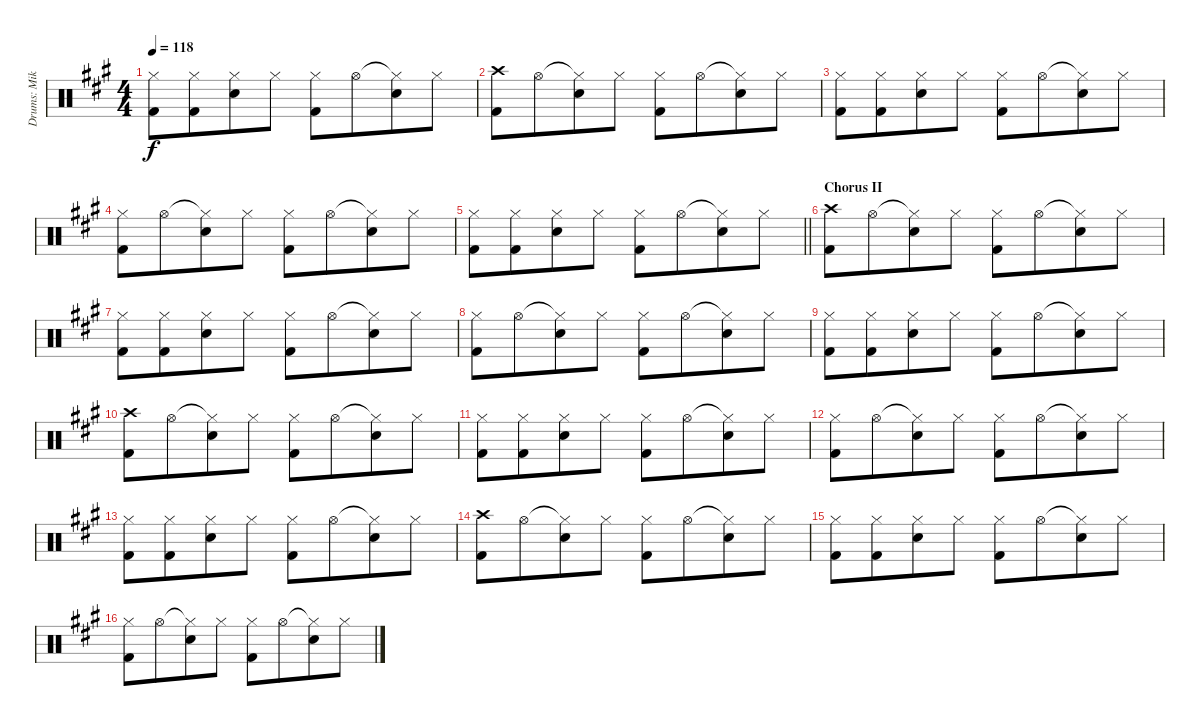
\track ("Drums: Mike" "Drums: Mik") {instrument percussion}
\staff {score}
\articulation defaults
\ts (4 4)
\tempo 118
\clef neutral
\ks a
("Hi-Hat (closed)" "Kick (hit) 2").8{dy f} ("Hi-Hat (closed)" "Kick (hit) 2").8{beam merge} ("Hi-Hat (closed)" "Electric Snare (hit)").8{beam merge} "Hi-Hat (closed)".8 ("Hi-Hat (closed)" "Kick (hit) 2").8 "Hi-Hat (open)".8{beam merge} ("Hi-Hat (closed)"{t} "Electric Snare (hit)").8{beam merge} "Hi-Hat (closed)".8 |
("Crash high (hit)" "Kick (hit) 2").8 "Hi-Hat (open)".8{beam merge} ("Hi-Hat (closed)"{t} "Electric Snare (hit)").8{beam merge} "Hi-Hat (closed)".8 ("Hi-Hat (closed)" "Kick (hit) 2").8 "Hi-Hat (open)".8{beam merge} ("Hi-Hat (closed)"{t} "Electric Snare (hit)").8{beam merge} "Hi-Hat (closed)".8 |
("Hi-Hat (closed)" "Kick (hit) 2").8 ("Hi-Hat (closed)" "Kick (hit) 2").8{beam merge} ("Hi-Hat (closed)" "Electric Snare (hit)").8{beam merge} "Hi-Hat (closed)".8 ("Hi-Hat (closed)" "Kick (hit) 2").8 "Hi-Hat (open)".8{beam merge} ("Hi-Hat (closed)"{t} "Electric Snare (hit)").8{beam merge} "Hi-Hat (closed)".8 |
("Hi-Hat (closed)" "Kick (hit) 2").8 "Hi-Hat (open)".8{beam merge} ("Hi-Hat (closed)"{t} "Electric Snare (hit)").8{beam merge} "Hi-Hat (closed)".8 ("Hi-Hat (closed)" "Kick (hit) 2").8 "Hi-Hat (open)".8{beam merge} ("Hi-Hat (closed)"{t} "Electric Snare (hit)").8{beam merge} "Hi-Hat (closed)".8 |
\barLineRight lightlight
("Hi-Hat (closed)" "Kick (hit) 2").8 ("Hi-Hat (closed)" "Kick (hit) 2").8{beam merge} ("Hi-Hat (closed)" "Electric Snare (hit)").8{beam merge} "Hi-Hat (closed)".8 ("Hi-Hat (closed)" "Kick (hit) 2").8 "Hi-Hat (open)".8{beam merge} ("Hi-Hat (closed)"{t} "Electric Snare (hit)").8{beam merge} "Hi-Hat (closed)".8 |
\section ("" "Chorus II")
("Crash high (hit)" "Kick (hit) 2").8 "Hi-Hat (open)".8{beam merge} ("Hi-Hat (closed)"{t} "Electric Snare (hit)").8{beam merge} "Hi-Hat (closed)".8 ("Hi-Hat (closed)" "Kick (hit) 2").8 "Hi-Hat (open)".8{beam merge} ("Hi-Hat (closed)"{t} "Electric Snare (hit)").8{beam merge} "Hi-Hat (closed)".8 |
("Hi-Hat (closed)" "Kick (hit) 2").8 ("Hi-Hat (closed)" "Kick (hit) 2").8{beam merge} ("Hi-Hat (closed)" "Electric Snare (hit)").8{beam merge} "Hi-Hat (closed)".8 ("Hi-Hat (closed)" "Kick (hit) 2").8 "Hi-Hat (open)".8{beam merge} ("Hi-Hat (closed)"{t} "Electric Snare (hit)").8{beam merge} "Hi-Hat (closed)".8 |
("Hi-Hat (closed)" "Kick (hit) 2").8 "Hi-Hat (open)".8{beam merge} ("Hi-Hat (closed)"{t} "Electric Snare (hit)").8{beam merge} "Hi-Hat (closed)".8 ("Hi-Hat (closed)" "Kick (hit) 2").8 "Hi-Hat (open)".8{beam merge} ("Hi-Hat (closed)"{t} "Electric Snare (hit)").8{beam merge} "Hi-Hat (closed)".8 |
("Hi-Hat (closed)" "Kick (hit) 2").8 ("Hi-Hat (closed)" "Kick (hit) 2").8{beam merge} ("Hi-Hat (closed)" "Electric Snare (hit)").8{beam merge} "Hi-Hat (closed)".8 ("Hi-Hat (closed)" "Kick (hit) 2").8 "Hi-Hat (open)".8{beam merge} ("Hi-Hat (closed)"{t} "Electric Snare (hit)").8{beam merge} "Hi-Hat (closed)".8 |
("Crash high (hit)" "Kick (hit) 2").8 "Hi-Hat (open)".8{beam merge} ("Hi-Hat (closed)"{t} "Electric Snare (hit)").8{beam merge} "Hi-Hat (closed)".8 ("Hi-Hat (closed)" "Kick (hit) 2").8 "Hi-Hat (open)".8{beam merge} ("Hi-Hat (closed)"{t} "Electric Snare (hit)").8{beam merge} "Hi-Hat (closed)".8 |
("Hi-Hat (closed)" "Kick (hit) 2").8 ("Hi-Hat (closed)" "Kick (hit) 2").8{beam merge} ("Hi-Hat (closed)" "Electric Snare (hit)").8{beam merge} "Hi-Hat (closed)".8 ("Hi-Hat (closed)" "Kick (hit) 2").8 "Hi-Hat (open)".8{beam merge} ("Hi-Hat (closed)"{t} "Electric Snare (hit)").8{beam merge} "Hi-Hat (closed)".8 |
("Hi-Hat (closed)" "Kick (hit) 2").8 "Hi-Hat (open)".8{beam merge} ("Hi-Hat (closed)"{t} "Electric Snare (hit)").8{beam merge} "Hi-Hat (closed)".8 ("Hi-Hat (closed)" "Kick (hit) 2").8 "Hi-Hat (open)".8{beam merge} ("Hi-Hat (closed)"{t} "Electric Snare (hit)").8{beam merge} "Hi-Hat (closed)".8 |
("Hi-Hat (closed)" "Kick (hit) 2").8 ("Hi-Hat (closed)" "Kick (hit) 2").8{beam merge} ("Hi-Hat (closed)" "Electric Snare (hit)").8{beam merge} "Hi-Hat (closed)".8 ("Hi-Hat (closed)" "Kick (hit) 2").8 "Hi-Hat (open)".8{beam merge} ("Hi-Hat (closed)"{t} "Electric Snare (hit)").8{beam merge} "Hi-Hat (closed)".8 |
("Crash high (hit)" "Kick (hit) 2").8 "Hi-Hat (open)".8{beam merge} ("Hi-Hat (closed)"{t} "Electric Snare (hit)").8{beam merge} "Hi-Hat (closed)".8 ("Hi-Hat (closed)" "Kick (hit) 2").8 "Hi-Hat (open)".8{beam merge} ("Hi-Hat (closed)"{t} "Electric Snare (hit)").8{beam merge} "Hi-Hat (closed)".8 |
("Hi-Hat (closed)" "Kick (hit) 2").8 ("Hi-Hat (closed)" "Kick (hit) 2").8{beam merge} ("Hi-Hat (closed)" "Electric Snare (hit)").8{beam merge} "Hi-Hat (closed)".8 ("Hi-Hat (closed)" "Kick (hit) 2").8 "Hi-Hat (open)".8{beam merge} ("Hi-Hat (closed)"{t} "Electric Snare (hit)").8{beam merge} "Hi-Hat (closed)".8 |
("Hi-Hat (closed)" "Kick (hit) 2").8 "Hi-Hat (open)".8{beam merge} ("Hi-Hat (closed)"{t} "Electric Snare (hit)").8{beam merge} "Hi-Hat (closed)".8 ("Hi-Hat (closed)" "Kick (hit) 2").8 "Hi-Hat (open)".8{beam merge} ("Hi-Hat (closed)"{t} "Electric Snare (hit)").8{beam merge} "Hi-Hat (closed)".8
